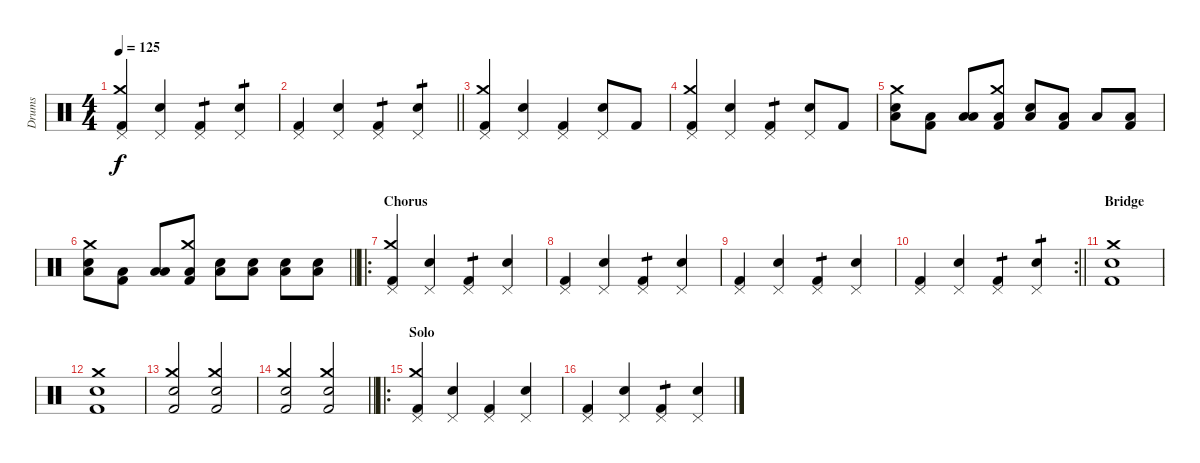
\track ("Drums" "Drums") {instrument percussion}
\staff {score}
\articulation defaults
\ts (4 4)
\tempo 125
\clef neutral
\ks c
("Kick (hit) 2" "Crash medium (hit)" "Pedal Hi-Hat (hit)").4{dy f} ("Snare (hit) 2" "Pedal Hi-Hat (hit)").4 ("Kick (hit) 2" "Pedal Hi-Hat (hit)").4{tp 1} ("Snare (hit) 2" "Pedal Hi-Hat (hit)").4{tp 1} |
\barLineRight lightlight
("Kick (hit) 2" "Pedal Hi-Hat (hit)").4 ("Snare (hit) 2" "Pedal Hi-Hat (hit)").4 ("Kick (hit) 2" "Pedal Hi-Hat (hit)").4{tp 1} ("Snare (hit) 2" "Pedal Hi-Hat (hit)").4{tp 1} |
("Kick (hit) 2" "Crash medium (hit)" "Pedal Hi-Hat (hit)").4 ("Snare (hit) 2" "Pedal Hi-Hat (hit)").4 ("Kick (hit) 2" "Pedal Hi-Hat (hit)").4 ("Snare (hit) 2" "Pedal Hi-Hat (hit)").8 "Kick (hit) 2".8 |
("Kick (hit) 2" "Crash medium (hit)" "Pedal Hi-Hat (hit)").4 ("Snare (hit) 2" "Pedal Hi-Hat (hit)").4 ("Kick (hit) 2" "Pedal Hi-Hat (hit)").4{tp 1} ("Snare (hit) 2" "Pedal Hi-Hat (hit)").8 "Kick (hit) 2".8 |
("Snare (hit) 2" "Low Floor Tom (hit)" "Crash medium (hit)").8 ("Kick (hit) 2" "Low Floor Tom (hit)").8 ("Low Floor Tom (hit)" "Low Floor Tom (hit)").8 ("Kick (hit) 2" "Low Floor Tom (hit)" "Crash medium (hit)").8 ("Snare (hit) 2" "Low Floor Tom (hit)").8 ("Kick (hit) 2" "Low Floor Tom (hit)").8 "Low Floor Tom (hit)".8 ("Kick (hit) 2" "Low Floor Tom (hit)").8 |
\barLineRight lightlight
("Snare (hit) 2" "Low Floor Tom (hit)" "Crash medium (hit)").8 ("Kick (hit) 2" "Low Floor Tom (hit)").8 ("Low Floor Tom (hit)" "Low Floor Tom (hit)").8 ("Kick (hit) 2" "Low Floor Tom (hit)" "Crash medium (hit)").8 ("Snare (hit) 2" "Low Floor Tom (hit)").8 ("Snare (hit) 2" "Low Floor Tom (hit)").8 ("Snare (hit) 2" "Low Floor Tom (hit)").8 ("Snare (hit) 2" "Low Floor Tom (hit)").8 |
\ro
\section ("" "Chorus")
("Kick (hit) 2" "Crash medium (hit)" "Pedal Hi-Hat (hit)").4 ("Snare (hit) 2" "Pedal Hi-Hat (hit)").4 ("Kick (hit) 2" "Pedal Hi-Hat (hit)").4{tp 1} ("Snare (hit) 2" "Pedal Hi-Hat (hit)").4 |
("Kick (hit) 2" "Pedal Hi-Hat (hit)").4 ("Snare (hit) 2" "Pedal Hi-Hat (hit)").4 ("Kick (hit) 2" "Pedal Hi-Hat (hit)").4{tp 1} ("Snare (hit) 2" "Pedal Hi-Hat (hit)").4 |
("Kick (hit) 2" "Pedal Hi-Hat (hit)").4 ("Snare (hit) 2" "Pedal Hi-Hat (hit)").4 ("Kick (hit) 2" "Pedal Hi-Hat (hit)").4{tp 1} ("Snare (hit) 2" "Pedal Hi-Hat (hit)").4 |
\rc 2
\barLineRight lightlight
("Kick (hit) 2" "Pedal Hi-Hat (hit)").4 ("Snare (hit) 2" "Pedal Hi-Hat (hit)").4 ("Kick (hit) 2" "Pedal Hi-Hat (hit)").4{tp 1} ("Snare (hit) 2" "Pedal Hi-Hat (hit)").4{tp 1} |
\section ("" "Bridge")
("Kick (hit) 2" "Snare (hit) 2" "Crash medium (hit)").1 |
("Kick (hit) 2" "Snare (hit) 2" "Crash medium (hit)").1 |
("Kick (hit) 2" "Snare (hit) 2" "Crash medium (hit)").2 ("Kick (hit) 2" "Snare (hit) 2" "Crash medium (hit)").2 |
\barLineRight lightlight
("Kick (hit) 2" "Snare (hit) 2" "Crash medium (hit)").2 ("Kick (hit) 2" "Snare (hit) 2" "Crash medium (hit)").2 |
\ro
\section ("" "Solo")
("Kick (hit) 2" "Crash medium (hit)" "Pedal Hi-Hat (hit)").4 ("Snare (hit) 2" "Pedal Hi-Hat (hit)").4 ("Kick (hit) 2" "Pedal Hi-Hat (hit)").4 ("Snare (hit) 2" "Pedal Hi-Hat (hit)").4 |
("Kick (hit) 2" "Pedal Hi-Hat (hit)").4 ("Snare (hit) 2" "Pedal Hi-Hat (hit)").4 ("Kick (hit) 2" "Pedal Hi-Hat (hit)").4{tp 1} ("Snare (hit) 2" "Pedal Hi-Hat (hit)").4
